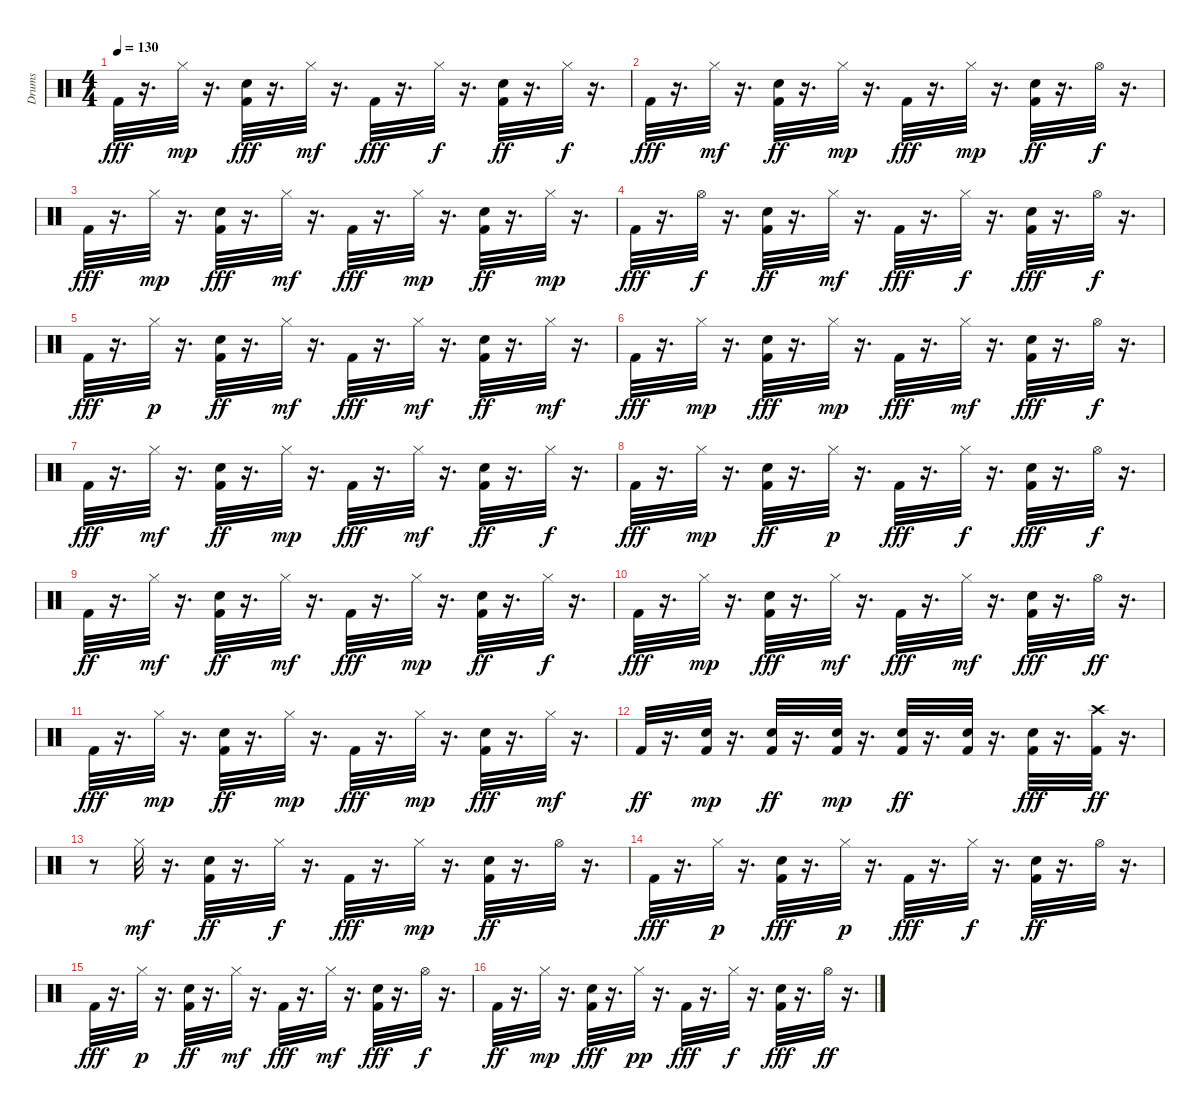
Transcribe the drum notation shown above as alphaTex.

\track ("Drums               " "Drums     ") {instrument percussion}
\staff {score}
\articulation defaults
\ts (4 4)
\tempo 130
\clef neutral
\ks c "Kick (hit) 2".32{dy fff}
r.16{d} "Hi-Hat (closed)".32{dy mp} r.16{d} ("Kick (hit) 2" "Snare (hit) 2").32{dy fff} r.16{d} "Hi-Hat (closed)".32{dy mf} r.16{d} "Kick (hit) 2".32{dy fff} r.16{d} "Hi-Hat (closed)".32{dy f} r.16{d} ("Kick (hit) 2" "Snare (hit) 2").32{dy ff} r.16{d} "Hi-Hat (closed)".32{dy f} r.16{d} |
"Kick (hit) 2".32{dy fff} r.16{d} "Hi-Hat (closed)".32{dy mf} r.16{d} ("Kick (hit) 2" "Snare (hit) 2").32{dy ff} r.16{d} "Hi-Hat (closed)".32{dy mp} r.16{d} "Kick (hit) 2".32{dy fff} r.16{d} "Hi-Hat (closed)".32{dy mp} r.16{d} ("Kick (hit) 2" "Snare (hit) 2").32{dy ff} r.16{d} "Hi-Hat (open)".32{dy f} r.16{d} |
"Kick (hit) 2".32{dy fff} r.16{d} "Hi-Hat (closed)".32{dy mp} r.16{d} ("Kick (hit) 2" "Snare (hit) 2").32{dy fff} r.16{d} "Hi-Hat (closed)".32{dy mf} r.16{d} "Kick (hit) 2".32{dy fff} r.16{d} "Hi-Hat (closed)".32{dy mp} r.16{d} ("Kick (hit) 2" "Snare (hit) 2").32{dy ff} r.16{d} "Hi-Hat (closed)".32{dy mp} r.16{d} |
"Kick (hit) 2".32{dy fff} r.16{d} "Hi-Hat (open)".32{dy f} r.16{d} ("Kick (hit) 2" "Snare (hit) 2").32{dy ff} r.16{d} "Hi-Hat (closed)".32{dy mf} r.16{d} "Kick (hit) 2".32{dy fff} r.16{d} "Hi-Hat (closed)".32{dy f} r.16{d} ("Kick (hit) 2" "Snare (hit) 2").32{dy fff} r.16{d} "Hi-Hat (open)".32{dy f} r.16{d} |
"Kick (hit) 2".32{dy fff} r.16{d} "Hi-Hat (closed)".32{dy p} r.16{d} ("Kick (hit) 2" "Snare (hit) 2").32{dy ff} r.16{d} "Hi-Hat (closed)".32{dy mf} r.16{d} "Kick (hit) 2".32{dy fff} r.16{d} "Hi-Hat (closed)".32{dy mf} r.16{d} ("Kick (hit) 2" "Snare (hit) 2").32{dy ff} r.16{d} "Hi-Hat (closed)".32{dy mf} r.16{d} |
"Kick (hit) 2".32{dy fff} r.16{d} "Hi-Hat (closed)".32{dy mp} r.16{d} ("Kick (hit) 2" "Snare (hit) 2").32{dy fff} r.16{d} "Hi-Hat (closed)".32{dy mp} r.16{d} "Kick (hit) 2".32{dy fff} r.16{d} "Hi-Hat (closed)".32{dy mf} r.16{d} ("Kick (hit) 2" "Snare (hit) 2").32{dy fff} r.16{d} "Hi-Hat (open)".32{dy f} r.16{d} |
"Kick (hit) 2".32{dy fff} r.16{d} "Hi-Hat (closed)".32{dy mf} r.16{d} ("Kick (hit) 2" "Snare (hit) 2").32{dy ff} r.16{d} "Hi-Hat (closed)".32{dy mp} r.16{d} "Kick (hit) 2".32{dy fff} r.16{d} "Hi-Hat (closed)".32{dy mf} r.16{d} ("Kick (hit) 2" "Snare (hit) 2").32{dy ff} r.16{d} "Hi-Hat (closed)".32{dy f} r.16{d} |
"Kick (hit) 2".32{dy fff} r.16{d} "Hi-Hat (closed)".32{dy mp} r.16{d} ("Kick (hit) 2" "Snare (hit) 2").32{dy ff} r.16{d} "Hi-Hat (closed)".32{dy p} r.16{d} "Kick (hit) 2".32{dy fff} r.16{d} "Hi-Hat (closed)".32{dy f} r.16{d} ("Kick (hit) 2" "Snare (hit) 2").32{dy fff} r.16{d} "Hi-Hat (open)".32{dy f} r.16{d} |
"Kick (hit) 2".32{dy ff} r.16{d} "Hi-Hat (closed)".32{dy mf} r.16{d} ("Kick (hit) 2" "Snare (hit) 2").32{dy ff} r.16{d} "Hi-Hat (closed)".32{dy mf} r.16{d} "Kick (hit) 2".32{dy fff} r.16{d} "Hi-Hat (closed)".32{dy mp} r.16{d} ("Kick (hit) 2" "Snare (hit) 2").32{dy ff} r.16{d} "Hi-Hat (closed)".32{dy f} r.16{d} |
"Kick (hit) 2".32{dy fff} r.16{d} "Hi-Hat (closed)".32{dy mp} r.16{d} ("Kick (hit) 2" "Snare (hit) 2").32{dy fff} r.16{d} "Hi-Hat (closed)".32{dy mf} r.16{d} "Kick (hit) 2".32{dy fff} r.16{d} "Hi-Hat (closed)".32{dy mf} r.16{d} ("Kick (hit) 2" "Snare (hit) 2").32{dy fff} r.16{d} "Hi-Hat (open)".32{dy ff} r.16{d} |
"Kick (hit) 2".32{dy fff} r.16{d} "Hi-Hat (closed)".32{dy mp} r.16{d} ("Kick (hit) 2" "Snare (hit) 2").32{dy ff} r.16{d} "Hi-Hat (closed)".32{dy mp} r.16{d} "Kick (hit) 2".32{dy fff} r.16{d} "Hi-Hat (closed)".32{dy mp} r.16{d} ("Kick (hit) 2" "Snare (hit) 2").32{dy fff} r.16{d} "Hi-Hat (closed)".32{dy mf} r.16{d} |
"Kick (hit) 2".32{dy ff} r.16{d} ("Kick (hit) 2" "Snare (hit) 2").32{dy mp} r.16{d} ("Kick (hit) 2" "Snare (hit) 2").32{dy ff} r.16{d} ("Kick (hit) 2" "Snare (hit) 2").32{dy mp} r.16{d} ("Kick (hit) 2" "Snare (hit) 2").32{dy ff} r.16{d} ("Kick (hit) 2" "Snare (hit) 2").32 r.16{d} ("Kick (hit) 2" "Snare (hit) 2").32{dy fff} r.16{d} ("Kick (hit) 2" "Crash high (hit)").32{dy ff} r.16{d} |
r.8 "Hi-Hat (closed)".32{dy mf} r.16{d} ("Kick (hit) 2" "Snare (hit) 2").32{dy ff} r.16{d} "Hi-Hat (closed)".32{dy f} r.16{d} "Kick (hit) 2".32{dy fff} r.16{d} "Hi-Hat (closed)".32{dy mp} r.16{d} ("Kick (hit) 2" "Snare (hit) 2").32{dy ff} r.16{d} "Hi-Hat (open)".32 r.16{d} |
"Kick (hit) 2".32{dy fff} r.16{d} "Hi-Hat (closed)".32{dy p} r.16{d} ("Kick (hit) 2" "Snare (hit) 2").32{dy fff} r.16{d} "Hi-Hat (closed)".32{dy p} r.16{d} "Kick (hit) 2".32{dy fff} r.16{d} "Hi-Hat (closed)".32{dy f} r.16{d} ("Kick (hit) 2" "Snare (hit) 2").32{dy ff} r.16{d} "Hi-Hat (open)".32 r.16{d} |
"Kick (hit) 2".32{dy fff} r.16{d} "Hi-Hat (closed)".32{dy p} r.16{d} ("Kick (hit) 2" "Snare (hit) 2").32{dy ff} r.16{d} "Hi-Hat (closed)".32{dy mf} r.16{d} "Kick (hit) 2".32{dy fff} r.16{d} "Hi-Hat (closed)".32{dy mf} r.16{d} ("Kick (hit) 2" "Snare (hit) 2").32{dy fff} r.16{d} "Hi-Hat (open)".32{dy f} r.16{d} |
"Kick (hit) 2".32{dy ff} r.16{d} "Hi-Hat (closed)".32{dy mp} r.16{d} ("Kick (hit) 2" "Snare (hit) 2").32{dy fff} r.16{d} "Hi-Hat (closed)".32{dy pp} r.16{d} "Kick (hit) 2".32{dy fff} r.16{d} "Hi-Hat (closed)".32{dy f} r.16{d} ("Kick (hit) 2" "Snare (hit) 2").32{dy fff} r.16{d} "Hi-Hat (open)".32{dy ff} r.16{d}
